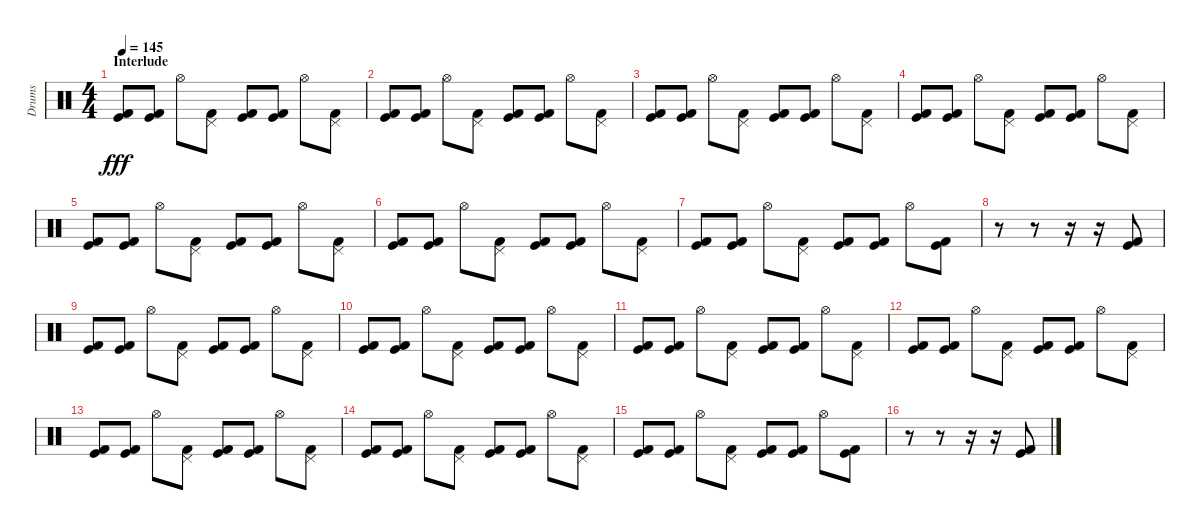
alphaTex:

\track ("Drums" "Drums") {instrument percussion}
\staff {score}
\articulation defaults
\ts (4 4)
\section ("" "Interlude")
\tempo 145
\clef neutral
\ks c
("Kick (hit)" "Kick (hit) 2").8{dy fff} ("Kick (hit)" "Kick (hit) 2").8 "Hi-Hat (open)".8 ("Pedal Hi-Hat (hit)" "Kick (hit) 2").8 ("Kick (hit)" "Kick (hit) 2").8 ("Kick (hit)" "Kick (hit) 2").8 "Hi-Hat (open)".8 ("Pedal Hi-Hat (hit)" "Kick (hit) 2").8 |
("Kick (hit)" "Kick (hit) 2").8 ("Kick (hit)" "Kick (hit) 2").8 "Hi-Hat (open)".8 ("Pedal Hi-Hat (hit)" "Kick (hit) 2").8 ("Kick (hit)" "Kick (hit) 2").8 ("Kick (hit)" "Kick (hit) 2").8 "Hi-Hat (open)".8 ("Pedal Hi-Hat (hit)" "Kick (hit) 2").8 |
("Kick (hit)" "Kick (hit) 2").8 ("Kick (hit)" "Kick (hit) 2").8 "Hi-Hat (open)".8 ("Pedal Hi-Hat (hit)" "Kick (hit) 2").8 ("Kick (hit)" "Kick (hit) 2").8 ("Kick (hit)" "Kick (hit) 2").8 "Hi-Hat (open)".8 ("Pedal Hi-Hat (hit)" "Kick (hit) 2").8 |
("Kick (hit)" "Kick (hit) 2").8 ("Kick (hit)" "Kick (hit) 2").8 "Hi-Hat (open)".8 ("Pedal Hi-Hat (hit)" "Kick (hit) 2").8 ("Kick (hit)" "Kick (hit) 2").8 ("Kick (hit)" "Kick (hit) 2").8 "Hi-Hat (open)".8 ("Pedal Hi-Hat (hit)" "Kick (hit) 2").8 |
("Kick (hit)" "Kick (hit) 2").8 ("Kick (hit)" "Kick (hit) 2").8 "Hi-Hat (open)".8 ("Pedal Hi-Hat (hit)" "Kick (hit) 2").8 ("Kick (hit)" "Kick (hit) 2").8 ("Kick (hit)" "Kick (hit) 2").8 "Hi-Hat (open)".8 ("Pedal Hi-Hat (hit)" "Kick (hit) 2").8 |
("Kick (hit)" "Kick (hit) 2").8 ("Kick (hit)" "Kick (hit) 2").8 "Hi-Hat (open)".8 ("Pedal Hi-Hat (hit)" "Kick (hit) 2").8 ("Kick (hit)" "Kick (hit) 2").8 ("Kick (hit)" "Kick (hit) 2").8 "Hi-Hat (open)".8 ("Pedal Hi-Hat (hit)" "Kick (hit) 2").8 |
("Kick (hit)" "Kick (hit) 2").8 ("Kick (hit)" "Kick (hit) 2").8 "Hi-Hat (open)".8 ("Pedal Hi-Hat (hit)" "Kick (hit) 2").8 ("Kick (hit)" "Kick (hit) 2").8 ("Kick (hit)" "Kick (hit) 2").8 "Hi-Hat (open)".8 ("Kick (hit)" "Kick (hit) 2").8 |
r.8 r.8 r.16 r.16 ("Kick (hit)" "Kick (hit) 2").8 |
("Kick (hit)" "Kick (hit) 2").8 ("Kick (hit)" "Kick (hit) 2").8 "Hi-Hat (open)".8 ("Pedal Hi-Hat (hit)" "Kick (hit) 2").8 ("Kick (hit)" "Kick (hit) 2").8 ("Kick (hit)" "Kick (hit) 2").8 "Hi-Hat (open)".8 ("Pedal Hi-Hat (hit)" "Kick (hit) 2").8 |
("Kick (hit)" "Kick (hit) 2").8 ("Kick (hit)" "Kick (hit) 2").8 "Hi-Hat (open)".8 ("Pedal Hi-Hat (hit)" "Kick (hit) 2").8 ("Kick (hit)" "Kick (hit) 2").8 ("Kick (hit)" "Kick (hit) 2").8 "Hi-Hat (open)".8 ("Pedal Hi-Hat (hit)" "Kick (hit) 2").8 |
("Kick (hit)" "Kick (hit) 2").8 ("Kick (hit)" "Kick (hit) 2").8 "Hi-Hat (open)".8 ("Pedal Hi-Hat (hit)" "Kick (hit) 2").8 ("Kick (hit)" "Kick (hit) 2").8 ("Kick (hit)" "Kick (hit) 2").8 "Hi-Hat (open)".8 ("Pedal Hi-Hat (hit)" "Kick (hit) 2").8 |
("Kick (hit)" "Kick (hit) 2").8 ("Kick (hit)" "Kick (hit) 2").8 "Hi-Hat (open)".8 ("Pedal Hi-Hat (hit)" "Kick (hit) 2").8 ("Kick (hit)" "Kick (hit) 2").8 ("Kick (hit)" "Kick (hit) 2").8 "Hi-Hat (open)".8 ("Pedal Hi-Hat (hit)" "Kick (hit) 2").8 |
("Kick (hit)" "Kick (hit) 2").8 ("Kick (hit)" "Kick (hit) 2").8 "Hi-Hat (open)".8 ("Pedal Hi-Hat (hit)" "Kick (hit) 2").8 ("Kick (hit)" "Kick (hit) 2").8 ("Kick (hit)" "Kick (hit) 2").8 "Hi-Hat (open)".8 ("Pedal Hi-Hat (hit)" "Kick (hit) 2").8 |
("Kick (hit)" "Kick (hit) 2").8 ("Kick (hit)" "Kick (hit) 2").8 "Hi-Hat (open)".8 ("Pedal Hi-Hat (hit)" "Kick (hit) 2").8 ("Kick (hit)" "Kick (hit) 2").8 ("Kick (hit)" "Kick (hit) 2").8 "Hi-Hat (open)".8 ("Pedal Hi-Hat (hit)" "Kick (hit) 2").8 |
("Kick (hit)" "Kick (hit) 2").8 ("Kick (hit)" "Kick (hit) 2").8 "Hi-Hat (open)".8 ("Pedal Hi-Hat (hit)" "Kick (hit) 2").8 ("Kick (hit)" "Kick (hit) 2").8 ("Kick (hit)" "Kick (hit) 2").8 "Hi-Hat (open)".8 ("Kick (hit)" "Kick (hit) 2").8 |
r.8 r.8 r.16 r.16 ("Kick (hit)" "Kick (hit) 2").8
